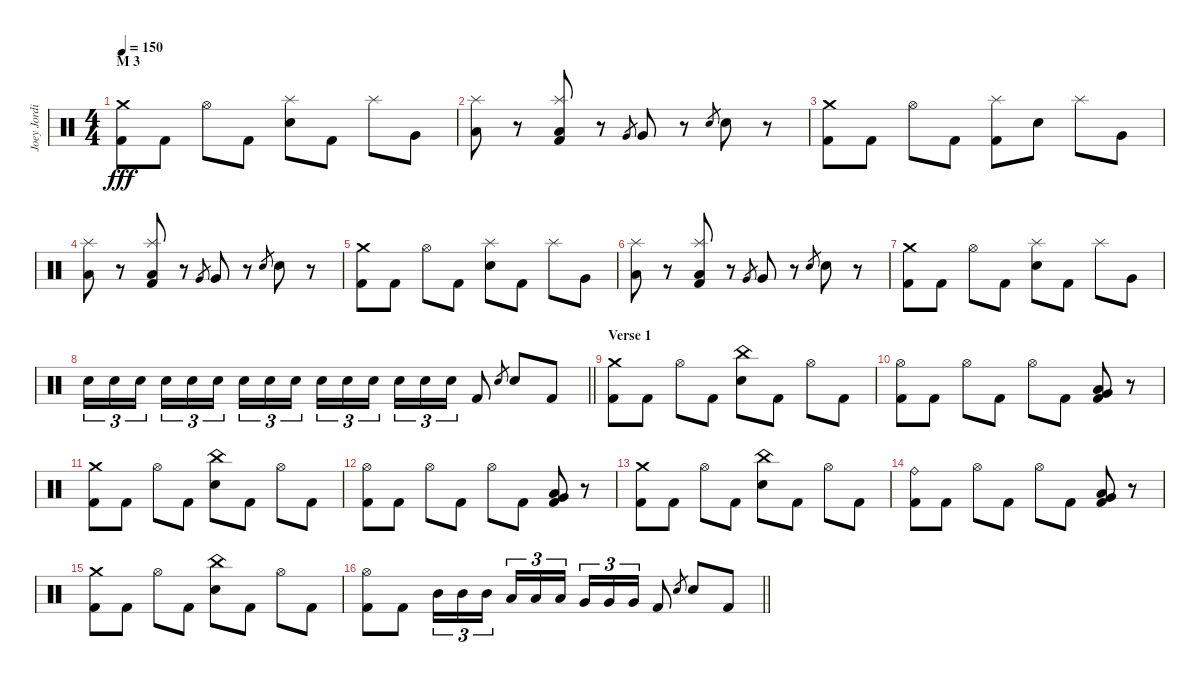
\track ("Joey Jordison" "Joey Jordi") {instrument percussion}
\staff {score}
\articulation defaults
\ts (4 4)
\section ("" "M 3")
\tempo 150
\clef neutral
\ks c
("Crash medium (hit)" "Kick (hit) 2").8{dy fff} "Kick (hit) 2".8 "Hi-Hat (open)".8 "Kick (hit) 2".8 ("Splash (hit)" "Electric Snare (hit)").8 "Kick (hit) 2".8 "Splash (hit)".8 "Very Low Tom (hit)".8 |
("Splash (hit)" "Low Floor Tom (hit)").8 r.8 ("Splash (hit)" "Low Tom (hit)" "Kick (hit) 2").8 r.8 "Very Low Tom (hit)".8{gr} "Very Low Tom (hit)".8 r.8 "Electric Snare (hit)".8{gr} "Electric Snare (hit)".8 r.8 |
("Crash medium (hit)" "Kick (hit) 2").8 "Kick (hit) 2".8 "Hi-Hat (open)".8 "Kick (hit) 2".8 ("Splash (hit)" "Kick (hit) 2").8 "Electric Snare (hit)".8 "Splash (hit)".8 "Very Low Tom (hit)".8 |
("Splash (hit)" "Low Floor Tom (hit)").8 r.8 ("Splash (hit)" "Low Tom (hit)" "Kick (hit) 2").8 r.8 "Very Low Tom (hit)".8{gr} "Very Low Tom (hit)".8 r.8 "Electric Snare (hit)".8{gr} "Electric Snare (hit)".8 r.8 |
("Crash medium (hit)" "Kick (hit) 2").8 "Kick (hit) 2".8 "Hi-Hat (open)".8 "Kick (hit) 2".8 ("Splash (hit)" "Electric Snare (hit)").8 "Kick (hit) 2".8 "Splash (hit)".8 "Very Low Tom (hit)".8 |
("Splash (hit)" "Low Floor Tom (hit)").8 r.8 ("Splash (hit)" "Low Tom (hit)" "Kick (hit) 2").8 r.8 "Very Low Tom (hit)".8{gr} "Very Low Tom (hit)".8 r.8 "Electric Snare (hit)".8{gr} "Electric Snare (hit)".8 r.8 |
("Crash medium (hit)" "Kick (hit) 2").8 "Kick (hit) 2".8 "Hi-Hat (open)".8 "Kick (hit) 2".8 ("Splash (hit)" "Electric Snare (hit)").8 "Kick (hit) 2".8 "Splash (hit)".8 "Very Low Tom (hit)".8 |
\barLineRight lightlight "Electric Snare (hit)".16{tu (3 2)} "Electric Snare (hit)".16{tu (3 2)} "Electric Snare (hit)".16{tu (3 2) beam splitsecondary} "Electric Snare (hit)".16{tu (3 2)} "Electric Snare (hit)".16{tu (3 2)} "Electric Snare (hit)".16{tu (3 2)} "Electric Snare (hit)".16{tu (3 2)} "Electric Snare (hit)".16{tu (3 2)} "Electric Snare (hit)".16{tu (3 2) beam splitsecondary} "Electric Snare (hit)".16{tu (3 2)} "Electric Snare (hit)".16{tu (3 2)} "Electric Snare (hit)".16{tu (3 2)} "Electric Snare (hit)".16{tu (3 2)} "Electric Snare (hit)".16{tu (3 2)} "Electric Snare (hit)".16{tu (3 2)} "Kick (hit) 2".8 "Electric Snare (hit)".8{gr} "Electric Snare (hit)".8 "Kick (hit) 2".8
|
\section ("" "Verse 1")
("Crash medium (hit)" "Kick (hit) 2").8 "Kick (hit) 2".8 "Hi-Hat (open)".8 "Kick (hit) 2".8 ("China (hit)" "Electric Snare (hit)").8 "Kick (hit) 2".8 "Hi-Hat (open)".8 "Kick (hit) 2".8 |
("Hi-Hat (open)" "Kick (hit) 2").8 "Kick (hit) 2".8 "Hi-Hat (open)".8 "Kick (hit) 2".8 "Hi-Hat (open)".8 "Kick (hit) 2".8 ("Very Low Tom (hit)" "Low Floor Tom (hit)" "Kick (hit) 2").8 r.8 |
("Crash medium (hit)" "Kick (hit) 2").8 "Kick (hit) 2".8 "Hi-Hat (open)".8 "Kick (hit) 2".8 ("China (hit)" "Electric Snare (hit)").8 "Kick (hit) 2".8 "Hi-Hat (open)".8 "Kick (hit) 2".8 |
("Hi-Hat (open)" "Kick (hit) 2").8 "Kick (hit) 2".8 "Hi-Hat (open)".8 "Kick (hit) 2".8 "Hi-Hat (open)".8 "Kick (hit) 2".8 ("Very Low Tom (hit)" "Low Floor Tom (hit)" "Kick (hit) 2").8 r.8 |
("Crash medium (hit)" "Kick (hit) 2").8 "Kick (hit) 2".8 "Hi-Hat (open)".8 "Kick (hit) 2".8 ("China (hit)" "Electric Snare (hit)").8 "Kick (hit) 2".8 "Hi-Hat (open)".8 "Kick (hit) 2".8 |
("Ride (bell)" "Kick (hit) 2").8 "Kick (hit) 2".8 "Hi-Hat (open)".8 "Kick (hit) 2".8 "Hi-Hat (open)".8 "Kick (hit) 2".8 ("Very Low Tom (hit)" "Low Floor Tom (hit)" "Kick (hit) 2").8 r.8 |
("Crash medium (hit)" "Kick (hit) 2").8 "Kick (hit) 2".8 "Hi-Hat (open)".8 "Kick (hit) 2".8 ("China (hit)" "Electric Snare (hit)").8 "Kick (hit) 2".8 "Hi-Hat (open)".8 "Kick (hit) 2".8 |
\barLineRight lightlight
("Hi-Hat (open)" "Kick (hit) 2").8 "Kick (hit) 2".8 "Mid Tom (hit)".16{tu (3 2)} "Mid Tom (hit)".16{tu (3 2)} "Mid Tom (hit)".16{tu (3 2) beam splitsecondary} "Low Tom (hit)".16{tu (3 2)} "Low Tom (hit)".16{tu (3 2)} "Low Tom (hit)".16{tu (3 2)} "Very Low Tom (hit)".16{tu (3 2)} "Very Low Tom (hit)".16{tu (3 2)} "Very Low Tom (hit)".16{tu (3 2)} "Kick (hit) 2".8 "Electric Snare (hit)".8{gr} "Electric Snare (hit)".8 "Kick (hit) 2".8
